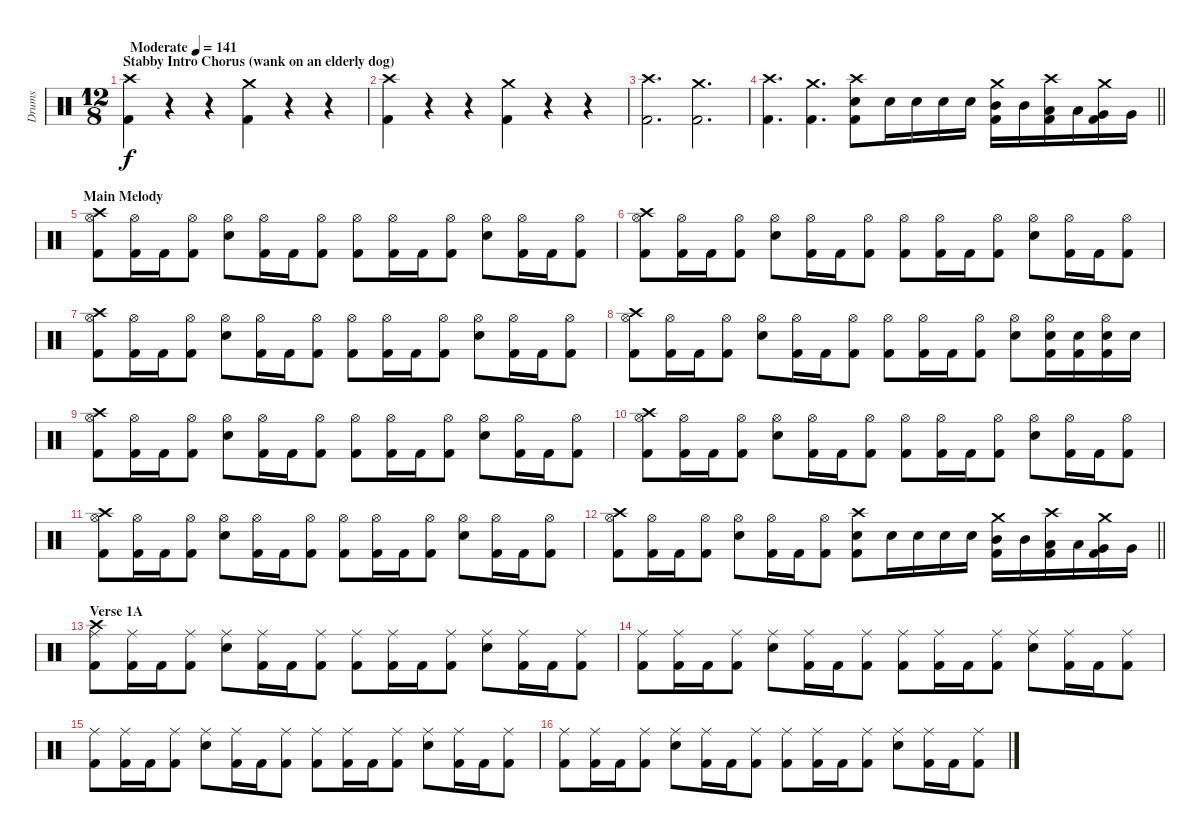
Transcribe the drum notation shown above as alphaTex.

\track ("Drums" "Drums") {instrument percussion}
\staff {score}
\articulation defaults
\ts (12 8)
\section ("" "Stabby Intro Chorus (wank on an elderly dog)")
\tempo (141 "Moderate")
\clef neutral
\ks c
("Crash high (hit)" "Kick (hit) 2").4{dy f} r.4 r.4 ("Crash medium (hit)" "Kick (hit) 2").4 r.4 r.4 |
("Crash high (hit)" "Kick (hit) 2").4 r.4 r.4 ("Crash medium (hit)" "Kick (hit) 2").4 r.4 r.4 |
("Crash high (hit)" "Kick (hit) 2").2{d} ("Crash medium (hit)" "Kick (hit) 2").2{d} |
\barLineRight lightlight
("Crash high (hit)" "Kick (hit) 2").4{d} ("Crash medium (hit)" "Kick (hit) 2").4{d} ("Crash high (hit)" "Snare (hit) 2" "Kick (hit) 2").8 "Snare (hit) 2".16 "Snare (hit) 2".16 "Snare (hit) 2".16 "Snare (hit) 2".16 ("Crash medium (hit)" "Mid Tom (hit)" "Kick (hit) 2").16 "Mid Tom (hit)".16 ("Crash high (hit)" "Low Tom (hit)" "Kick (hit) 2").16 "Low Tom (hit)".16 ("Crash medium (hit)" "Very Low Tom (hit)" "Kick (hit) 2").16 "Very Low Tom (hit)".16 |
\section ("" "Main Melody")
("Crash high (hit)" "Hi-Hat (open)" "Kick (hit) 2").8 ("Hi-Hat (open)" "Kick (hit) 2").16 "Kick (hit) 2".16 ("Hi-Hat (open)" "Kick (hit) 2").8 ("Hi-Hat (open)" "Snare (hit) 2").8 ("Hi-Hat (open)" "Kick (hit) 2").16 "Kick (hit) 2".16 ("Hi-Hat (open)" "Kick (hit) 2").8 ("Hi-Hat (open)" "Kick (hit) 2").8 ("Hi-Hat (open)" "Kick (hit) 2").16 "Kick (hit) 2".16 ("Hi-Hat (open)" "Kick (hit) 2").8 ("Hi-Hat (open)" "Snare (hit) 2").8 ("Hi-Hat (open)" "Kick (hit) 2").16 "Kick (hit) 2".16 ("Hi-Hat (open)" "Kick (hit) 2").8 |
("Crash high (hit)" "Hi-Hat (open)" "Kick (hit) 2").8 ("Hi-Hat (open)" "Kick (hit) 2").16 "Kick (hit) 2".16 ("Hi-Hat (open)" "Kick (hit) 2").8 ("Hi-Hat (open)" "Snare (hit) 2").8 ("Hi-Hat (open)" "Kick (hit) 2").16 "Kick (hit) 2".16 ("Hi-Hat (open)" "Kick (hit) 2").8 ("Hi-Hat (open)" "Kick (hit) 2").8 ("Hi-Hat (open)" "Kick (hit) 2").16 "Kick (hit) 2".16 ("Hi-Hat (open)" "Kick (hit) 2").8 ("Hi-Hat (open)" "Snare (hit) 2").8 ("Hi-Hat (open)" "Kick (hit) 2").16 "Kick (hit) 2".16 ("Hi-Hat (open)" "Kick (hit) 2").8 |
("Crash high (hit)" "Hi-Hat (open)" "Kick (hit) 2").8 ("Hi-Hat (open)" "Kick (hit) 2").16 "Kick (hit) 2".16 ("Hi-Hat (open)" "Kick (hit) 2").8 ("Hi-Hat (open)" "Snare (hit) 2").8 ("Hi-Hat (open)" "Kick (hit) 2").16 "Kick (hit) 2".16 ("Hi-Hat (open)" "Kick (hit) 2").8 ("Hi-Hat (open)" "Kick (hit) 2").8 ("Hi-Hat (open)" "Kick (hit) 2").16 "Kick (hit) 2".16 ("Hi-Hat (open)" "Kick (hit) 2").8 ("Hi-Hat (open)" "Snare (hit) 2").8 ("Hi-Hat (open)" "Kick (hit) 2").16 "Kick (hit) 2".16 ("Hi-Hat (open)" "Kick (hit) 2").8 |
("Crash high (hit)" "Hi-Hat (open)" "Kick (hit) 2").8 ("Hi-Hat (open)" "Kick (hit) 2").16 "Kick (hit) 2".16 ("Hi-Hat (open)" "Kick (hit) 2").8 ("Hi-Hat (open)" "Snare (hit) 2").8 ("Hi-Hat (open)" "Kick (hit) 2").16 "Kick (hit) 2".16 ("Hi-Hat (open)" "Kick (hit) 2").8 ("Hi-Hat (open)" "Kick (hit) 2").8 ("Hi-Hat (open)" "Kick (hit) 2").16 "Kick (hit) 2".16 ("Hi-Hat (open)" "Kick (hit) 2").8 ("Hi-Hat (open)" "Snare (hit) 2").8 ("Hi-Hat (open)" "Snare (hit) 2" "Kick (hit) 2").16 ("Snare (hit) 2" "Kick (hit) 2").16 ("Hi-Hat (open)" "Snare (hit) 2" "Kick (hit) 2").16 "Snare (hit) 2".16 |
("Crash high (hit)" "Hi-Hat (open)" "Kick (hit) 2").8 ("Hi-Hat (open)" "Kick (hit) 2").16 "Kick (hit) 2".16 ("Hi-Hat (open)" "Kick (hit) 2").8 ("Hi-Hat (open)" "Snare (hit) 2").8 ("Hi-Hat (open)" "Kick (hit) 2").16 "Kick (hit) 2".16 ("Hi-Hat (open)" "Kick (hit) 2").8 ("Hi-Hat (open)" "Kick (hit) 2").8 ("Hi-Hat (open)" "Kick (hit) 2").16 "Kick (hit) 2".16 ("Hi-Hat (open)" "Kick (hit) 2").8 ("Hi-Hat (open)" "Snare (hit) 2").8 ("Hi-Hat (open)" "Kick (hit) 2").16 "Kick (hit) 2".16 ("Hi-Hat (open)" "Kick (hit) 2").8 |
("Crash high (hit)" "Hi-Hat (open)" "Kick (hit) 2").8 ("Hi-Hat (open)" "Kick (hit) 2").16 "Kick (hit) 2".16 ("Hi-Hat (open)" "Kick (hit) 2").8 ("Hi-Hat (open)" "Snare (hit) 2").8 ("Hi-Hat (open)" "Kick (hit) 2").16 "Kick (hit) 2".16 ("Hi-Hat (open)" "Kick (hit) 2").8 ("Hi-Hat (open)" "Kick (hit) 2").8 ("Hi-Hat (open)" "Kick (hit) 2").16 "Kick (hit) 2".16 ("Hi-Hat (open)" "Kick (hit) 2").8 ("Hi-Hat (open)" "Snare (hit) 2").8 ("Hi-Hat (open)" "Kick (hit) 2").16 "Kick (hit) 2".16 ("Hi-Hat (open)" "Kick (hit) 2").8 |
("Crash high (hit)" "Hi-Hat (open)" "Kick (hit) 2").8 ("Hi-Hat (open)" "Kick (hit) 2").16 "Kick (hit) 2".16 ("Hi-Hat (open)" "Kick (hit) 2").8 ("Hi-Hat (open)" "Snare (hit) 2").8 ("Hi-Hat (open)" "Kick (hit) 2").16 "Kick (hit) 2".16 ("Hi-Hat (open)" "Kick (hit) 2").8 ("Hi-Hat (open)" "Kick (hit) 2").8 ("Hi-Hat (open)" "Kick (hit) 2").16 "Kick (hit) 2".16 ("Hi-Hat (open)" "Kick (hit) 2").8 ("Hi-Hat (open)" "Snare (hit) 2").8 ("Hi-Hat (open)" "Kick (hit) 2").16 "Kick (hit) 2".16 ("Hi-Hat (open)" "Kick (hit) 2").8 |
\barLineRight lightlight
("Crash high (hit)" "Hi-Hat (open)" "Kick (hit) 2").8 ("Hi-Hat (open)" "Kick (hit) 2").16 "Kick (hit) 2".16 ("Hi-Hat (open)" "Kick (hit) 2").8 ("Hi-Hat (open)" "Snare (hit) 2").8 ("Hi-Hat (open)" "Kick (hit) 2").16 "Kick (hit) 2".16 ("Hi-Hat (open)" "Kick (hit) 2").8 ("Crash high (hit)" "Snare (hit) 2" "Kick (hit) 2").8 "Snare (hit) 2".16 "Snare (hit) 2".16 "Snare (hit) 2".16 "Snare (hit) 2".16 ("Crash medium (hit)" "Mid Tom (hit)" "Kick (hit) 2").16 "Mid Tom (hit)".16 ("Crash high (hit)" "Low Tom (hit)" "Kick (hit) 2").16 "Low Tom (hit)".16 ("Crash medium (hit)" "Very Low Tom (hit)" "Kick (hit) 2").16 "Very Low Tom (hit)".16 |
\section ("" "Verse 1A")
("Crash high (hit)" "Ride (middle)" "Kick (hit) 2").8 ("Ride (middle)" "Kick (hit) 2").16 "Kick (hit) 2".16 ("Ride (middle)" "Kick (hit) 2").8 ("Ride (middle)" "Snare (hit) 2").8 ("Ride (middle)" "Kick (hit) 2").16 "Kick (hit) 2".16 ("Ride (middle)" "Kick (hit) 2").8 ("Ride (middle)" "Kick (hit) 2").8 ("Ride (middle)" "Kick (hit) 2").16 "Kick (hit) 2".16 ("Ride (middle)" "Kick (hit) 2").8 ("Ride (middle)" "Snare (hit) 2").8 ("Ride (middle)" "Kick (hit) 2").16 "Kick (hit) 2".16 ("Ride (middle)" "Kick (hit) 2").8 |
("Ride (middle)" "Kick (hit) 2").8 ("Ride (middle)" "Kick (hit) 2").16 "Kick (hit) 2".16 ("Ride (middle)" "Kick (hit) 2").8 ("Ride (middle)" "Snare (hit) 2").8 ("Ride (middle)" "Kick (hit) 2").16 "Kick (hit) 2".16 ("Ride (middle)" "Kick (hit) 2").8 ("Ride (middle)" "Kick (hit) 2").8 ("Ride (middle)" "Kick (hit) 2").16 "Kick (hit) 2".16 ("Ride (middle)" "Kick (hit) 2").8 ("Ride (middle)" "Snare (hit) 2").8 ("Ride (middle)" "Kick (hit) 2").16 "Kick (hit) 2".16 ("Ride (middle)" "Kick (hit) 2").8 |
("Ride (middle)" "Kick (hit) 2").8 ("Ride (middle)" "Kick (hit) 2").16 "Kick (hit) 2".16 ("Ride (middle)" "Kick (hit) 2").8 ("Ride (middle)" "Snare (hit) 2").8 ("Ride (middle)" "Kick (hit) 2").16 "Kick (hit) 2".16 ("Ride (middle)" "Kick (hit) 2").8 ("Ride (middle)" "Kick (hit) 2").8 ("Ride (middle)" "Kick (hit) 2").16 "Kick (hit) 2".16 ("Ride (middle)" "Kick (hit) 2").8 ("Ride (middle)" "Snare (hit) 2").8 ("Ride (middle)" "Kick (hit) 2").16 "Kick (hit) 2".16 ("Ride (middle)" "Kick (hit) 2").8 |
("Ride (middle)" "Kick (hit) 2").8 ("Ride (middle)" "Kick (hit) 2").16 "Kick (hit) 2".16 ("Ride (middle)" "Kick (hit) 2").8 ("Ride (middle)" "Snare (hit) 2").8 ("Ride (middle)" "Kick (hit) 2").16 "Kick (hit) 2".16 ("Ride (middle)" "Kick (hit) 2").8 ("Ride (middle)" "Kick (hit) 2").8 ("Ride (middle)" "Kick (hit) 2").16 "Kick (hit) 2".16 ("Ride (middle)" "Kick (hit) 2").8 ("Ride (middle)" "Snare (hit) 2").8 ("Ride (middle)" "Kick (hit) 2").16 "Kick (hit) 2".16 ("Ride (middle)" "Kick (hit) 2").8
